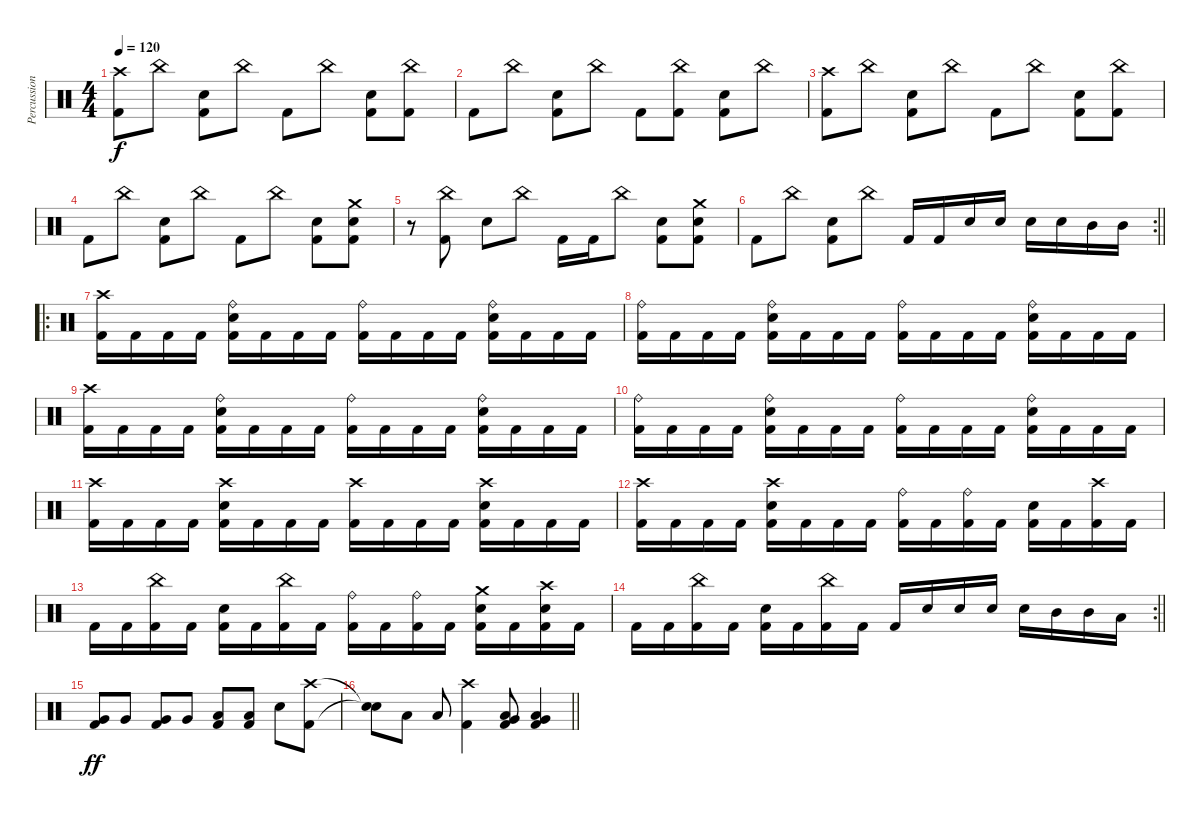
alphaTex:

\track ("Percussions" "Percussion") {instrument percussion}
\staff {score}
\articulation defaults
\ts (4 4)
\tempo 120
\clef neutral
\ks c
("Crash high (hit)" "Kick (hit) 2").8{dy f} "China (hit)".8 ("Electric Snare (hit)" "Kick (hit) 2").8 "China (hit)".8 "Kick (hit) 2".8 "China (hit)".8 ("Electric Snare (hit)" "Kick (hit) 2").8 ("China (hit)" "Kick (hit) 2").8 |
"Kick (hit) 2".8 "China (hit)".8 ("Electric Snare (hit)" "Kick (hit) 2").8 "China (hit)".8 "Kick (hit) 2".8 ("China (hit)" "Kick (hit) 2").8 ("Electric Snare (hit)" "Kick (hit) 2").8 "China (hit)".8 |
("Crash high (hit)" "Kick (hit) 2").8 "China (hit)".8 ("Electric Snare (hit)" "Kick (hit) 2").8 "China (hit)".8 "Kick (hit) 2".8 "China (hit)".8 ("Electric Snare (hit)" "Kick (hit) 2").8 ("China (hit)" "Kick (hit) 2").8 |
"Kick (hit) 2".8 "China (hit)".8 ("Electric Snare (hit)" "Kick (hit) 2").8 "China (hit)".8 "Kick (hit) 2".8 "China (hit)".8 ("Electric Snare (hit)" "Kick (hit) 2").8 ("Crash medium (hit)" "Electric Snare (hit)" "Kick (hit) 2").8 |
r.8 ("China (hit)" "Kick (hit) 2").8 "Electric Snare (hit)".8 "China (hit)".8 "Kick (hit) 2".16 "Kick (hit) 2".16 "China (hit)".8 ("Electric Snare (hit)" "Kick (hit) 2").8 ("Crash medium (hit)" "Electric Snare (hit)" "Kick (hit) 2").8 |
\rc 2
\barLineRight lightlight "Kick (hit) 2".8 "China (hit)".8
("Electric Snare (hit)" "Kick (hit) 2").8 "China (hit)".8 "Kick (hit) 2".16 "Kick (hit) 2".16 "Electric Snare (hit)".16 "Electric Snare (hit)".16 "Electric Snare (hit)".16 "Electric Snare (hit)".16 "Mid Tom (hit)".16 "Mid Tom (hit)".16 |
\ro
\section ("" "")
("Crash high (hit)" "Kick (hit) 2").16 "Kick (hit) 2".16 "Kick (hit) 2".16 "Kick (hit) 2".16 ("Ride (bell)" "Electric Snare (hit)" "Kick (hit) 2").16 "Kick (hit) 2".16 "Kick (hit) 2".16 "Kick (hit) 2".16 ("Ride (bell)" "Kick (hit) 2").16 "Kick (hit) 2".16 "Kick (hit) 2".16 "Kick (hit) 2".16 ("Ride (bell)" "Electric Snare (hit)" "Kick (hit) 2").16 "Kick (hit) 2".16 "Kick (hit) 2".16 "Kick (hit) 2".16 |
("Ride (bell)" "Kick (hit) 2").16 "Kick (hit) 2".16 "Kick (hit) 2".16 "Kick (hit) 2".16 ("Ride (bell)" "Electric Snare (hit)" "Kick (hit) 2").16 "Kick (hit) 2".16 "Kick (hit) 2".16 "Kick (hit) 2".16 ("Ride (bell)" "Kick (hit) 2").16 "Kick (hit) 2".16 "Kick (hit) 2".16 "Kick (hit) 2".16 ("Ride (bell)" "Electric Snare (hit)" "Kick (hit) 2").16 "Kick (hit) 2".16 "Kick (hit) 2".16 "Kick (hit) 2".16 |
("Crash high (hit)" "Kick (hit) 2").16 "Kick (hit) 2".16 "Kick (hit) 2".16 "Kick (hit) 2".16 ("Ride (bell)" "Electric Snare (hit)" "Kick (hit) 2").16 "Kick (hit) 2".16 "Kick (hit) 2".16 "Kick (hit) 2".16 ("Ride (bell)" "Kick (hit) 2").16 "Kick (hit) 2".16 "Kick (hit) 2".16 "Kick (hit) 2".16 ("Ride (bell)" "Electric Snare (hit)" "Kick (hit) 2").16 "Kick (hit) 2".16 "Kick (hit) 2".16 "Kick (hit) 2".16 |
("Ride (bell)" "Kick (hit) 2").16 "Kick (hit) 2".16 "Kick (hit) 2".16 "Kick (hit) 2".16 ("Ride (bell)" "Electric Snare (hit)" "Kick (hit) 2").16 "Kick (hit) 2".16 "Kick (hit) 2".16 "Kick (hit) 2".16 ("Ride (bell)" "Kick (hit) 2").16 "Kick (hit) 2".16 "Kick (hit) 2".16 "Kick (hit) 2".16 ("Ride (bell)" "Electric Snare (hit)" "Kick (hit) 2").16 "Kick (hit) 2".16 "Kick (hit) 2".16 "Kick (hit) 2".16 |
("Crash high (hit)" "Kick (hit) 2").16 "Kick (hit) 2".16 "Kick (hit) 2".16 "Kick (hit) 2".16 ("Crash high (hit)" "Electric Snare (hit)" "Kick (hit) 2").16 "Kick (hit) 2".16 "Kick (hit) 2".16 "Kick (hit) 2".16 ("Crash high (hit)" "Kick (hit) 2").16 "Kick (hit) 2".16 "Kick (hit) 2".16 "Kick (hit) 2".16 ("Crash high (hit)" "Electric Snare (hit)" "Kick (hit) 2").16 "Kick (hit) 2".16 "Kick (hit) 2".16 "Kick (hit) 2".16 |
("Crash high (hit)" "Kick (hit) 2").16 "Kick (hit) 2".16 "Kick (hit) 2".16 "Kick (hit) 2".16 ("Crash high (hit)" "Electric Snare (hit)" "Kick (hit) 2").16 "Kick (hit) 2".16 "Kick (hit) 2".16 "Kick (hit) 2".16 ("Ride (bell)" "Kick (hit) 2").16 "Kick (hit) 2".16 ("Ride (bell)" "Kick (hit) 2").16 "Kick (hit) 2".16 ("Electric Snare (hit)" "Kick (hit) 2").16 "Kick (hit) 2".16 ("Crash high (hit)" "Kick (hit) 2").16 "Kick (hit) 2".16 |
"Kick (hit) 2".16 "Kick (hit) 2".16 ("China (hit)" "Kick (hit) 2").16 "Kick (hit) 2".16 ("Electric Snare (hit)" "Kick (hit) 2").16 "Kick (hit) 2".16 ("China (hit)" "Kick (hit) 2").16 "Kick (hit) 2".16 ("Ride (bell)" "Kick (hit) 2").16 "Kick (hit) 2".16 ("Ride (bell)" "Kick (hit) 2").16 "Kick (hit) 2".16 ("Crash medium (hit)" "Electric Snare (hit)" "Kick (hit) 2").16 "Kick (hit) 2".16 ("Crash high (hit)" "Electric Snare (hit)" "Kick (hit) 2").16 "Kick (hit) 2".16 |
\rc 2
\barLineRight lightlight "Kick (hit) 2".16 "Kick (hit) 2".16
("China (hit)" "Kick (hit) 2").16 "Kick (hit) 2".16 ("Electric Snare (hit)" "Kick (hit) 2").16 "Kick (hit) 2".16 ("China (hit)" "Kick (hit) 2").16 "Kick (hit) 2".16 "Kick (hit) 2".16 "Electric Snare (hit)".16 "Electric Snare (hit)".16 "Electric Snare (hit)".16 "Electric Snare (hit)".16 "Mid Tom (hit)".16 "Mid Tom (hit)".16 "Low Tom (hit)".16 |
\section ("" "")
("Very Low Tom (hit)" "Kick (hit) 2").8{dy ff} "Very Low Tom (hit)".8 ("Very Low Tom (hit)" "Kick (hit) 2").8 "Very Low Tom (hit)".8 ("Low Floor Tom (hit)" "Kick (hit) 2").8 ("Low Floor Tom (hit)" "Kick (hit) 2").8 "Electric Snare (hit)".8 ("Crash high (hit)" "Kick (hit) 2").8 |
\barLineRight lightlight
("Snare (hit)"{t} "Snare (hit)"{t}).8 "Low Tom (hit)".8 "Low Tom (hit)".8 ("Crash high (hit)" "Kick (hit) 2").4 ("Very Low Tom (hit)" "Low Floor Tom (hit)" "Kick (hit) 2").8 ("Very Low Tom (hit)" "Low Floor Tom (hit)" "Kick (hit) 2").4
